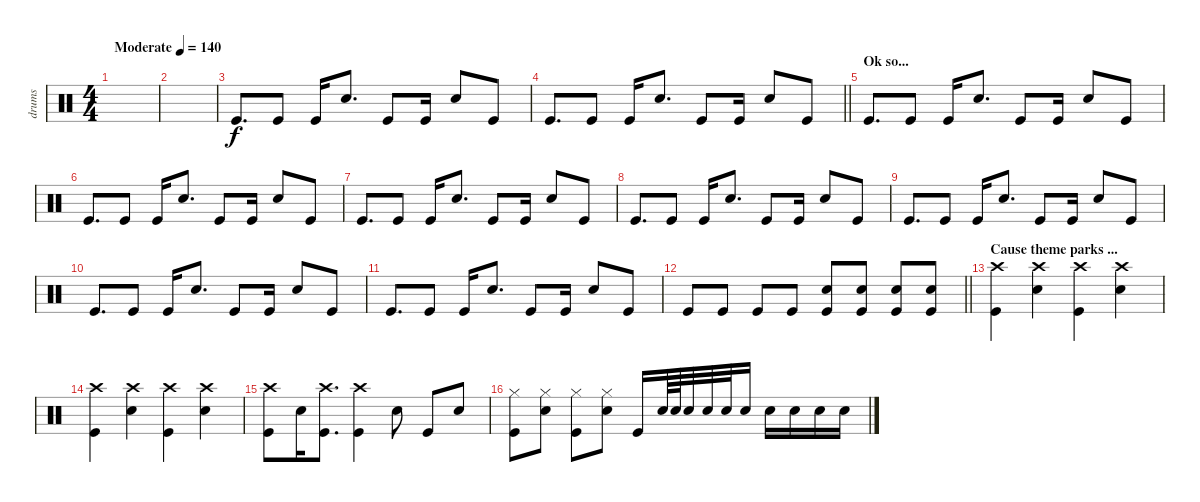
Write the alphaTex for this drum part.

\track ("drums" "drums") {instrument percussion}
\staff {score}
\articulation defaults
\ts (4 4)
\tempo (140 "Moderate")
\clef neutral
\ks c
|
|
"Kick (hit)".8{d} "Kick (hit)".8 "Kick (hit)".16 "Snare (hit) 2".8{d} "Kick (hit)".8 "Kick (hit)".16 "Snare (hit) 2".8 "Kick (hit)".8 |
\barLineRight lightlight "Kick (hit)".8{d} "Kick (hit)".8 "Kick (hit)".16 "Snare (hit) 2".8{d} "Kick (hit)".8 "Kick (hit)".16 "Snare (hit) 2".8 "Kick (hit)".8
|
\section ("" "Ok so...")
"Kick (hit)".8{d} "Kick (hit)".8 "Kick (hit)".16 "Snare (hit) 2".8{d} "Kick (hit)".8 "Kick (hit)".16 "Snare (hit) 2".8 "Kick (hit)".8 |
"Kick (hit)".8{d} "Kick (hit)".8 "Kick (hit)".16 "Snare (hit) 2".8{d} "Kick (hit)".8 "Kick (hit)".16 "Snare (hit) 2".8 "Kick (hit)".8 |
"Kick (hit)".8{d} "Kick (hit)".8 "Kick (hit)".16 "Snare (hit) 2".8{d} "Kick (hit)".8 "Kick (hit)".16 "Snare (hit) 2".8 "Kick (hit)".8 |
"Kick (hit)".8{d} "Kick (hit)".8 "Kick (hit)".16 "Snare (hit) 2".8{d} "Kick (hit)".8 "Kick (hit)".16 "Snare (hit) 2".8 "Kick (hit)".8 |
"Kick (hit)".8{d} "Kick (hit)".8 "Kick (hit)".16 "Snare (hit) 2".8{d} "Kick (hit)".8 "Kick (hit)".16 "Snare (hit) 2".8 "Kick (hit)".8 |
"Kick (hit)".8{d} "Kick (hit)".8 "Kick (hit)".16 "Snare (hit) 2".8{d} "Kick (hit)".8 "Kick (hit)".16 "Snare (hit) 2".8 "Kick (hit)".8 |
"Kick (hit)".8{d} "Kick (hit)".8 "Kick (hit)".16 "Snare (hit) 2".8{d} "Kick (hit)".8 "Kick (hit)".16 "Snare (hit) 2".8 "Kick (hit)".8 |
\barLineRight lightlight "Kick (hit)".8 "Kick (hit)".8 "Kick (hit)".8 "Kick (hit)".8
("Snare (hit) 2" "Kick (hit)").8 ("Snare (hit) 2" "Kick (hit)").8 ("Snare (hit) 2" "Kick (hit)").8 ("Snare (hit) 2" "Kick (hit)").8 |
\section ("" "Cause theme parks ...")
("Crash high (hit)" "Kick (hit)").4 ("Crash high (hit)" "Snare (hit) 2").4 ("Crash high (hit)" "Kick (hit)").4 ("Crash high (hit)" "Snare (hit) 2").4 |
("Crash high (hit)" "Kick (hit)").4 ("Crash high (hit)" "Snare (hit) 2").4 ("Crash high (hit)" "Kick (hit)").4 ("Crash high (hit)" "Snare (hit) 2").4 |
("Crash high (hit)" "Kick (hit)").8 "Snare (hit) 2".16 ("Crash high (hit)" "Kick (hit)").8{d} ("Crash high (hit)" "Kick (hit)").4 "Snare (hit) 2".8 "Kick (hit)".8 "Snare (hit) 2".8 |
("Hi-Hat (closed)" "Kick (hit)").8 ("Hi-Hat (closed)" "Snare (hit) 2").8 ("Hi-Hat (closed)" "Kick (hit)").8 ("Hi-Hat (closed)" "Snare (hit) 2").8 "Kick (hit)".16 "Snare (hit) 2".64 "Snare (hit) 2".64 "Snare (hit) 2".32 "Snare (hit) 2".32 "Snare (hit) 2".32 "Snare (hit) 2".16 "Snare (hit) 2".16 "Snare (hit) 2".16 "Snare (hit) 2".16 "Snare (hit) 2".16
